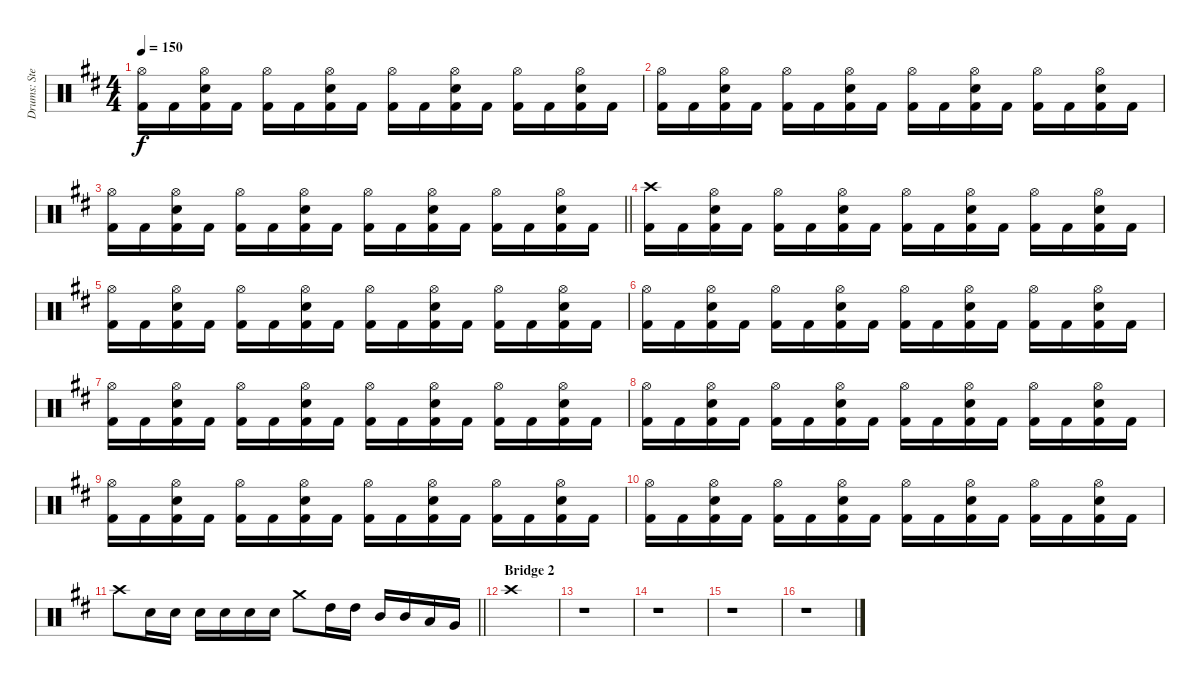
\track ("Drums: Stefan Svantesson" "Drums: Ste") {instrument percussion}
\staff {score}
\articulation defaults
\ts (4 4)
\tempo 150
\clef neutral
\ks d
("Hi-Hat (open)" "Kick (hit) 2").16{dy f} "Kick (hit) 2".16 ("Hi-Hat (open)" "Electric Snare (hit)" "Kick (hit) 2").16 "Kick (hit) 2".16 ("Hi-Hat (open)" "Kick (hit) 2").16 "Kick (hit) 2".16 ("Hi-Hat (open)" "Electric Snare (hit)" "Kick (hit) 2").16 "Kick (hit) 2".16 ("Hi-Hat (open)" "Kick (hit) 2").16 "Kick (hit) 2".16 ("Hi-Hat (open)" "Electric Snare (hit)" "Kick (hit) 2").16 "Kick (hit) 2".16 ("Hi-Hat (open)" "Kick (hit) 2").16 "Kick (hit) 2".16 ("Hi-Hat (open)" "Electric Snare (hit)" "Kick (hit) 2").16 "Kick (hit) 2".16 |
("Hi-Hat (open)" "Kick (hit) 2").16 "Kick (hit) 2".16 ("Hi-Hat (open)" "Electric Snare (hit)" "Kick (hit) 2").16 "Kick (hit) 2".16 ("Hi-Hat (open)" "Kick (hit) 2").16 "Kick (hit) 2".16 ("Hi-Hat (open)" "Electric Snare (hit)" "Kick (hit) 2").16 "Kick (hit) 2".16 ("Hi-Hat (open)" "Kick (hit) 2").16 "Kick (hit) 2".16 ("Hi-Hat (open)" "Electric Snare (hit)" "Kick (hit) 2").16 "Kick (hit) 2".16 ("Hi-Hat (open)" "Kick (hit) 2").16 "Kick (hit) 2".16 ("Hi-Hat (open)" "Electric Snare (hit)" "Kick (hit) 2").16 "Kick (hit) 2".16 |
\barLineRight lightlight
("Hi-Hat (open)" "Kick (hit) 2").16 "Kick (hit) 2".16 ("Hi-Hat (open)" "Electric Snare (hit)" "Kick (hit) 2").16 "Kick (hit) 2".16 ("Hi-Hat (open)" "Kick (hit) 2").16 "Kick (hit) 2".16 ("Hi-Hat (open)" "Electric Snare (hit)" "Kick (hit) 2").16 "Kick (hit) 2".16 ("Hi-Hat (open)" "Kick (hit) 2").16 "Kick (hit) 2".16 ("Hi-Hat (open)" "Electric Snare (hit)" "Kick (hit) 2").16 "Kick (hit) 2".16 ("Hi-Hat (open)" "Kick (hit) 2").16 "Kick (hit) 2".16 ("Hi-Hat (open)" "Electric Snare (hit)" "Kick (hit) 2").16 "Kick (hit) 2".16 |
("Crash high (hit)" "Kick (hit) 2").16 "Kick (hit) 2".16 ("Hi-Hat (open)" "Electric Snare (hit)" "Kick (hit) 2").16 "Kick (hit) 2".16 ("Hi-Hat (open)" "Kick (hit) 2").16 "Kick (hit) 2".16 ("Hi-Hat (open)" "Electric Snare (hit)" "Kick (hit) 2").16 "Kick (hit) 2".16 ("Hi-Hat (open)" "Kick (hit) 2").16 "Kick (hit) 2".16 ("Hi-Hat (open)" "Electric Snare (hit)" "Kick (hit) 2").16 "Kick (hit) 2".16 ("Hi-Hat (open)" "Kick (hit) 2").16 "Kick (hit) 2".16 ("Hi-Hat (open)" "Electric Snare (hit)" "Kick (hit) 2").16 "Kick (hit) 2".16 |
("Hi-Hat (open)" "Kick (hit) 2").16 "Kick (hit) 2".16 ("Hi-Hat (open)" "Electric Snare (hit)" "Kick (hit) 2").16 "Kick (hit) 2".16 ("Hi-Hat (open)" "Kick (hit) 2").16 "Kick (hit) 2".16 ("Hi-Hat (open)" "Electric Snare (hit)" "Kick (hit) 2").16 "Kick (hit) 2".16 ("Hi-Hat (open)" "Kick (hit) 2").16 "Kick (hit) 2".16 ("Hi-Hat (open)" "Electric Snare (hit)" "Kick (hit) 2").16 "Kick (hit) 2".16 ("Hi-Hat (open)" "Kick (hit) 2").16 "Kick (hit) 2".16 ("Hi-Hat (open)" "Electric Snare (hit)" "Kick (hit) 2").16 "Kick (hit) 2".16 |
("Hi-Hat (open)" "Kick (hit) 2").16 "Kick (hit) 2".16 ("Hi-Hat (open)" "Electric Snare (hit)" "Kick (hit) 2").16 "Kick (hit) 2".16 ("Hi-Hat (open)" "Kick (hit) 2").16 "Kick (hit) 2".16 ("Hi-Hat (open)" "Electric Snare (hit)" "Kick (hit) 2").16 "Kick (hit) 2".16 ("Hi-Hat (open)" "Kick (hit) 2").16 "Kick (hit) 2".16 ("Hi-Hat (open)" "Electric Snare (hit)" "Kick (hit) 2").16 "Kick (hit) 2".16 ("Hi-Hat (open)" "Kick (hit) 2").16 "Kick (hit) 2".16 ("Hi-Hat (open)" "Electric Snare (hit)" "Kick (hit) 2").16 "Kick (hit) 2".16 |
("Hi-Hat (open)" "Kick (hit) 2").16 "Kick (hit) 2".16 ("Hi-Hat (open)" "Electric Snare (hit)" "Kick (hit) 2").16 "Kick (hit) 2".16 ("Hi-Hat (open)" "Kick (hit) 2").16 "Kick (hit) 2".16 ("Hi-Hat (open)" "Electric Snare (hit)" "Kick (hit) 2").16 "Kick (hit) 2".16 ("Hi-Hat (open)" "Kick (hit) 2").16 "Kick (hit) 2".16 ("Hi-Hat (open)" "Electric Snare (hit)" "Kick (hit) 2").16 "Kick (hit) 2".16 ("Hi-Hat (open)" "Kick (hit) 2").16 "Kick (hit) 2".16 ("Hi-Hat (open)" "Electric Snare (hit)" "Kick (hit) 2").16 "Kick (hit) 2".16 |
("Hi-Hat (open)" "Kick (hit) 2").16 "Kick (hit) 2".16 ("Hi-Hat (open)" "Electric Snare (hit)" "Kick (hit) 2").16 "Kick (hit) 2".16 ("Hi-Hat (open)" "Kick (hit) 2").16 "Kick (hit) 2".16 ("Hi-Hat (open)" "Electric Snare (hit)" "Kick (hit) 2").16 "Kick (hit) 2".16 ("Hi-Hat (open)" "Kick (hit) 2").16 "Kick (hit) 2".16 ("Hi-Hat (open)" "Electric Snare (hit)" "Kick (hit) 2").16 "Kick (hit) 2".16 ("Hi-Hat (open)" "Kick (hit) 2").16 "Kick (hit) 2".16 ("Hi-Hat (open)" "Electric Snare (hit)" "Kick (hit) 2").16 "Kick (hit) 2".16 |
("Hi-Hat (open)" "Kick (hit) 2").16 "Kick (hit) 2".16 ("Hi-Hat (open)" "Electric Snare (hit)" "Kick (hit) 2").16 "Kick (hit) 2".16 ("Hi-Hat (open)" "Kick (hit) 2").16 "Kick (hit) 2".16 ("Hi-Hat (open)" "Electric Snare (hit)" "Kick (hit) 2").16 "Kick (hit) 2".16 ("Hi-Hat (open)" "Kick (hit) 2").16 "Kick (hit) 2".16 ("Hi-Hat (open)" "Electric Snare (hit)" "Kick (hit) 2").16 "Kick (hit) 2".16 ("Hi-Hat (open)" "Kick (hit) 2").16 "Kick (hit) 2".16 ("Hi-Hat (open)" "Electric Snare (hit)" "Kick (hit) 2").16 "Kick (hit) 2".16 |
("Hi-Hat (open)" "Kick (hit) 2").16 "Kick (hit) 2".16 ("Hi-Hat (open)" "Electric Snare (hit)" "Kick (hit) 2").16 "Kick (hit) 2".16 ("Hi-Hat (open)" "Kick (hit) 2").16 "Kick (hit) 2".16 ("Hi-Hat (open)" "Electric Snare (hit)" "Kick (hit) 2").16 "Kick (hit) 2".16 ("Hi-Hat (open)" "Kick (hit) 2").16 "Kick (hit) 2".16 ("Hi-Hat (open)" "Electric Snare (hit)" "Kick (hit) 2").16 "Kick (hit) 2".16 ("Hi-Hat (open)" "Kick (hit) 2").16 "Kick (hit) 2".16 ("Hi-Hat (open)" "Electric Snare (hit)" "Kick (hit) 2").16 "Kick (hit) 2".16 |
\barLineRight lightlight "Crash high (hit)".8 "Electric Snare (hit)".16 "Electric Snare (hit)".16 "Electric Snare (hit)".16 "Electric Snare (hit)".16 "Electric Snare (hit)".16 "Electric Snare (hit)".16 "Crash medium (hit)".8 "High Tom (hit)".16 "High Tom (hit)".16 "Mid Tom (hit)".16 "Mid Tom (hit)".16 "Low Tom (hit)".16 "Very Low Tom (hit)".16
|
\section ("" "Bridge 2")
"Crash high (hit)".1 |
r.1 |
r.1 |
r.1 |
r.1
